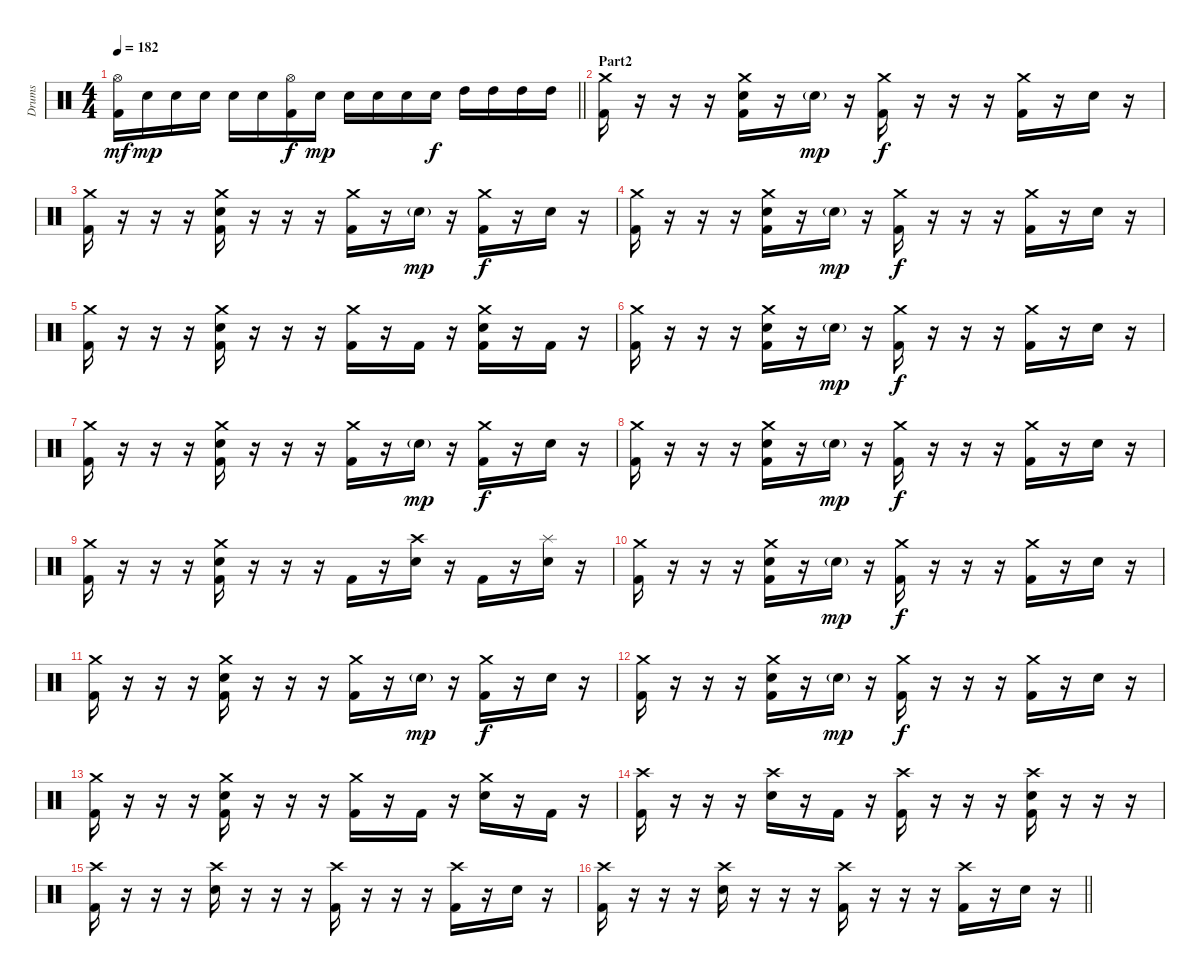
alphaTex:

\track ("Drums" "Drums") {instrument percussion}
\staff {score}
\articulation defaults
\ts (4 4)
\tempo 182
\clef neutral
\barLineRight lightlight
\ks c
("Kick (hit) 2" "Hi-Hat (open)").16{dy mf} "Electric Snare (hit)".16{dy mp} "Electric Snare (hit)".16 "Electric Snare (hit)".16 "Electric Snare (hit)".16 "Electric Snare (hit)".16 ("Kick (hit) 2" "Hi-Hat (open)").16{dy f} "Electric Snare (hit)".16{dy mp} "Electric Snare (hit)".16 "Electric Snare (hit)".16 "Electric Snare (hit)".16 "Electric Snare (hit)".16{dy f} "High Tom (hit)".16 "High Tom (hit)".16 "High Tom (hit)".16 "High Tom (hit)".16 |
\section ("" "Part2")
("Kick (hit) 2" "Crash medium (hit)").16 r.16 r.16 r.16 ("Kick (hit) 2" "Electric Snare (hit)" "Crash medium (hit)").16 r.16 "Electric Snare (hit)"{g}.16{dy mp} r.16 ("Kick (hit) 2" "Crash medium (hit)").16{dy f} r.16 r.16 r.16 ("Kick (hit) 2" "Crash medium (hit)").16 r.16 "Electric Snare (hit)".16 r.16 |
("Kick (hit) 2" "Crash medium (hit)").16 r.16 r.16 r.16 ("Kick (hit) 2" "Electric Snare (hit)" "Crash medium (hit)").16 r.16 r.16 r.16 ("Kick (hit) 2" "Crash medium (hit)").16 r.16 "Electric Snare (hit)"{g}.16{dy mp} r.16 ("Kick (hit) 2" "Crash medium (hit)").16{dy f} r.16 "Electric Snare (hit)".16 r.16 |
("Kick (hit) 2" "Crash medium (hit)").16 r.16 r.16 r.16 ("Kick (hit) 2" "Electric Snare (hit)" "Crash medium (hit)").16 r.16 "Electric Snare (hit)"{g}.16{dy mp} r.16 ("Kick (hit) 2" "Crash medium (hit)").16{dy f} r.16 r.16 r.16 ("Kick (hit) 2" "Crash medium (hit)").16 r.16 "Electric Snare (hit)".16 r.16 |
("Kick (hit) 2" "Crash medium (hit)").16 r.16 r.16 r.16 ("Kick (hit) 2" "Electric Snare (hit)" "Crash medium (hit)").16 r.16 r.16 r.16 ("Kick (hit) 2" "Crash medium (hit)").16 r.16 "Kick (hit) 2".16 r.16 ("Kick (hit) 2" "Electric Snare (hit)" "Crash medium (hit)").16 r.16 "Kick (hit) 2".16 r.16 |
("Kick (hit) 2" "Crash medium (hit)").16 r.16 r.16 r.16 ("Kick (hit) 2" "Electric Snare (hit)" "Crash medium (hit)").16 r.16 "Electric Snare (hit)"{g}.16{dy mp} r.16 ("Kick (hit) 2" "Crash medium (hit)").16{dy f} r.16 r.16 r.16 ("Kick (hit) 2" "Crash medium (hit)").16 r.16 "Electric Snare (hit)".16 r.16 |
("Kick (hit) 2" "Crash medium (hit)").16 r.16 r.16 r.16 ("Kick (hit) 2" "Electric Snare (hit)" "Crash medium (hit)").16 r.16 r.16 r.16 ("Kick (hit) 2" "Crash medium (hit)").16 r.16 "Electric Snare (hit)"{g}.16{dy mp} r.16 ("Kick (hit) 2" "Crash medium (hit)").16{dy f} r.16 "Electric Snare (hit)".16 r.16 |
("Kick (hit) 2" "Crash medium (hit)").16 r.16 r.16 r.16 ("Kick (hit) 2" "Electric Snare (hit)" "Crash medium (hit)").16 r.16 "Electric Snare (hit)"{g}.16{dy mp} r.16 ("Kick (hit) 2" "Crash medium (hit)").16{dy f} r.16 r.16 r.16 ("Kick (hit) 2" "Crash medium (hit)").16 r.16 "Electric Snare (hit)".16 r.16 |
("Kick (hit) 2" "Crash medium (hit)").16 r.16 r.16 r.16 ("Kick (hit) 2" "Electric Snare (hit)" "Crash medium (hit)").16 r.16 r.16 r.16 "Kick (hit) 2".16 r.16 ("Electric Snare (hit)" "Crash high (hit)").16 r.16 "Kick (hit) 2".16 r.16 ("Electric Snare (hit)" "Splash (hit)").16 r.16 |
("Kick (hit) 2" "Crash medium (hit)").16 r.16 r.16 r.16 ("Kick (hit) 2" "Electric Snare (hit)" "Crash medium (hit)").16 r.16 "Electric Snare (hit)"{g}.16{dy mp} r.16 ("Kick (hit) 2" "Crash medium (hit)").16{dy f} r.16 r.16 r.16 ("Kick (hit) 2" "Crash medium (hit)").16 r.16 "Electric Snare (hit)".16 r.16 |
("Kick (hit) 2" "Crash medium (hit)").16 r.16 r.16 r.16 ("Kick (hit) 2" "Electric Snare (hit)" "Crash medium (hit)").16 r.16 r.16 r.16 ("Kick (hit) 2" "Crash medium (hit)").16 r.16 "Electric Snare (hit)"{g}.16{dy mp} r.16 ("Kick (hit) 2" "Crash medium (hit)").16{dy f} r.16 "Electric Snare (hit)".16 r.16 |
("Kick (hit) 2" "Crash medium (hit)").16 r.16 r.16 r.16 ("Kick (hit) 2" "Electric Snare (hit)" "Crash medium (hit)").16 r.16 "Electric Snare (hit)"{g}.16{dy mp} r.16 ("Kick (hit) 2" "Crash medium (hit)").16{dy f} r.16 r.16 r.16 ("Kick (hit) 2" "Crash medium (hit)").16 r.16 "Electric Snare (hit)".16 r.16 |
("Kick (hit) 2" "Crash medium (hit)").16 r.16 r.16 r.16 ("Kick (hit) 2" "Electric Snare (hit)" "Crash medium (hit)").16 r.16 r.16 r.16 ("Kick (hit) 2" "Crash medium (hit)").16 r.16 "Kick (hit) 2".16 r.16 ("Electric Snare (hit)" "Crash medium (hit)").16 r.16 "Kick (hit) 2".16 r.16 |
("Kick (hit) 2" "Crash high (hit)").16 r.16 r.16 r.16 ("Electric Snare (hit)" "Crash high (hit)").16 r.16 "Kick (hit) 2".16 r.16 ("Kick (hit) 2" "Crash high (hit)").16 r.16 r.16 r.16 ("Kick (hit) 2" "Electric Snare (hit)" "Crash high (hit)").16 r.16 r.16 r.16 |
("Kick (hit) 2" "Crash high (hit)").16 r.16 r.16 r.16 ("Electric Snare (hit)" "Crash high (hit)").16 r.16 r.16 r.16 ("Kick (hit) 2" "Crash high (hit)").16 r.16 r.16 r.16 ("Kick (hit) 2" "Crash high (hit)").16 r.16 "Electric Snare (hit)".16 r.16 |
\barLineRight lightlight
("Kick (hit) 2" "Crash high (hit)").16 r.16 r.16 r.16 ("Electric Snare (hit)" "Crash high (hit)").16 r.16 r.16 r.16 ("Kick (hit) 2" "Crash high (hit)").16 r.16 r.16 r.16 ("Kick (hit) 2" "Crash high (hit)").16 r.16 "Electric Snare (hit)".16 r.16
